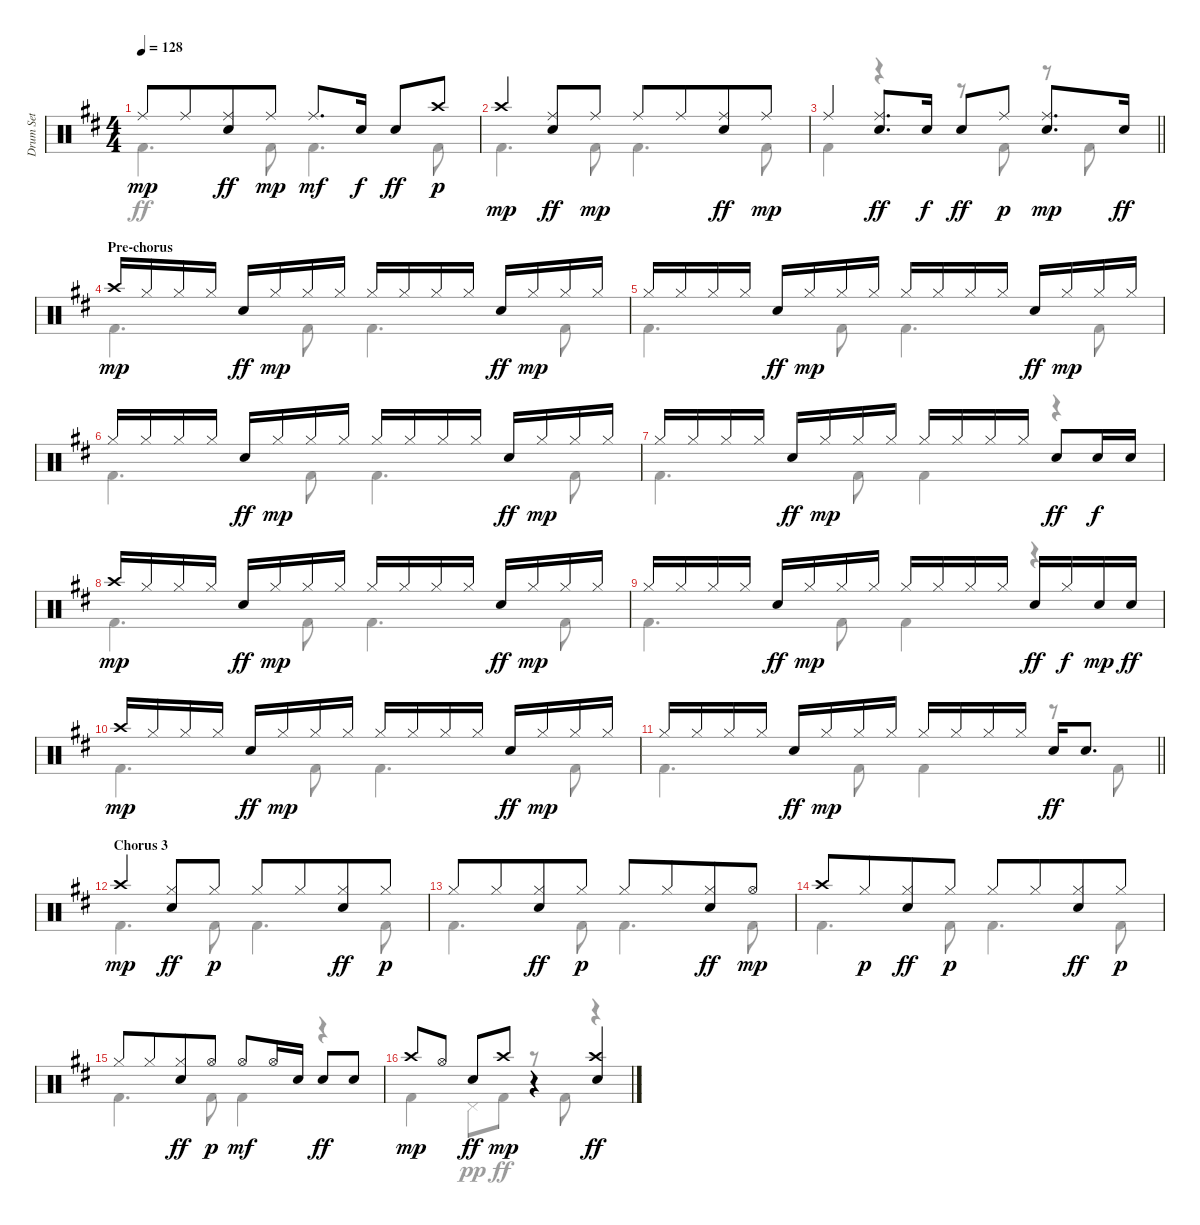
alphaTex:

\track ("Drum Set" "Drum Set") {instrument percussion}
\staff {score}
\articulation defaults
\voice
\ts (4 4)
\tempo 128
\clef neutral
\ks bminor "Ride (middle)".8{dy mp} "Ride (middle)".8{beam merge}
("Ride (middle)" "Electric Snare (hit)").8{dy ff} "Ride (middle)".8{dy mp} "Ride (middle)".8{d dy mf} "Electric Snare (hit)".16{dy f} "Electric Snare (hit)".8{dy ff} "Crash high (hit)".8{dy p} |
"Crash high (hit)".4{dy mp} ("Ride (middle)" "Electric Snare (hit)").8{dy ff} "Ride (middle)".8{dy mp} "Ride (middle)".8 "Ride (middle)".8{beam merge} ("Ride (middle)" "Electric Snare (hit)").8{dy ff} "Ride (middle)".8{dy mp} |
\barLineRight lightlight "Ride (middle)".4{beam merge}
("Ride (middle)" "Electric Snare (hit)").8{d dy ff} "Electric Snare (hit)".16{dy f} "Electric Snare (hit)".8{dy ff} "Ride (middle)".8{dy p} ("Electric Snare (hit)" "Ride (middle)").8{d dy mp} "Electric Snare (hit)".16{dy ff} |
\section ("" "Pre-chorus")
"Crash high (hit)".16{dy mp} "Hi-Hat (closed)".16 "Hi-Hat (closed)".16 "Hi-Hat (closed)".16 "Electric Snare (hit)".16{dy ff} "Hi-Hat (closed)".16{dy mp} "Hi-Hat (closed)".16 "Hi-Hat (closed)".16 "Hi-Hat (closed)".16 "Hi-Hat (closed)".16 "Hi-Hat (closed)".16 "Hi-Hat (closed)".16 "Electric Snare (hit)".16{dy ff} "Hi-Hat (closed)".16{dy mp} "Hi-Hat (closed)".16 "Hi-Hat (closed)".16 |
"Hi-Hat (closed)".16 "Hi-Hat (closed)".16 "Hi-Hat (closed)".16 "Hi-Hat (closed)".16 "Electric Snare (hit)".16{dy ff} "Hi-Hat (closed)".16{dy mp} "Hi-Hat (closed)".16 "Hi-Hat (closed)".16 "Hi-Hat (closed)".16 "Hi-Hat (closed)".16 "Hi-Hat (closed)".16 "Hi-Hat (closed)".16 "Electric Snare (hit)".16{dy ff} "Hi-Hat (closed)".16{dy mp} "Hi-Hat (closed)".16 "Hi-Hat (closed)".16 |
"Hi-Hat (closed)".16 "Hi-Hat (closed)".16 "Hi-Hat (closed)".16 "Hi-Hat (closed)".16 "Electric Snare (hit)".16{dy ff} "Hi-Hat (closed)".16{dy mp} "Hi-Hat (closed)".16 "Hi-Hat (closed)".16 "Hi-Hat (closed)".16 "Hi-Hat (closed)".16 "Hi-Hat (closed)".16 "Hi-Hat (closed)".16 "Electric Snare (hit)".16{dy ff} "Hi-Hat (closed)".16{dy mp} "Hi-Hat (closed)".16 "Hi-Hat (closed)".16 |
"Hi-Hat (closed)".16 "Hi-Hat (closed)".16 "Hi-Hat (closed)".16 "Hi-Hat (closed)".16 "Electric Snare (hit)".16{dy ff} "Hi-Hat (closed)".16{dy mp} "Hi-Hat (closed)".16 "Hi-Hat (closed)".16 "Hi-Hat (closed)".16 "Hi-Hat (closed)".16 "Hi-Hat (closed)".16 "Hi-Hat (closed)".16 "Electric Snare (hit)".8{dy ff} "Electric Snare (hit)".16{dy f} "Electric Snare (hit)".16 |
"Crash high (hit)".16{dy mp} "Hi-Hat (closed)".16 "Hi-Hat (closed)".16 "Hi-Hat (closed)".16 "Electric Snare (hit)".16{dy ff} "Hi-Hat (closed)".16{dy mp} "Hi-Hat (closed)".16 "Hi-Hat (closed)".16 "Hi-Hat (closed)".16 "Hi-Hat (closed)".16 "Hi-Hat (closed)".16 "Hi-Hat (closed)".16 "Electric Snare (hit)".16{dy ff} "Hi-Hat (closed)".16{dy mp} "Hi-Hat (closed)".16 "Hi-Hat (closed)".16 |
"Hi-Hat (closed)".16 "Hi-Hat (closed)".16 "Hi-Hat (closed)".16 "Hi-Hat (closed)".16 "Electric Snare (hit)".16{dy ff} "Hi-Hat (closed)".16{dy mp} "Hi-Hat (closed)".16 "Hi-Hat (closed)".16 "Hi-Hat (closed)".16 "Hi-Hat (closed)".16 "Hi-Hat (closed)".16 "Hi-Hat (closed)".16 "Electric Snare (hit)".16{dy ff} "Hi-Hat (closed)".16{dy f} "Electric Snare (hit)".16{dy mp} "Electric Snare (hit)".16{dy ff} |
"Crash high (hit)".16{dy mp} "Hi-Hat (closed)".16 "Hi-Hat (closed)".16 "Hi-Hat (closed)".16 "Electric Snare (hit)".16{dy ff} "Hi-Hat (closed)".16{dy mp} "Hi-Hat (closed)".16 "Hi-Hat (closed)".16 "Hi-Hat (closed)".16 "Hi-Hat (closed)".16 "Hi-Hat (closed)".16 "Hi-Hat (closed)".16 "Electric Snare (hit)".16{dy ff} "Hi-Hat (closed)".16{dy mp} "Hi-Hat (closed)".16 "Hi-Hat (closed)".16 |
\barLineRight lightlight "Hi-Hat (closed)".16 "Hi-Hat (closed)".16 "Hi-Hat (closed)".16 "Hi-Hat (closed)".16 "Electric Snare (hit)".16{dy ff} "Hi-Hat (closed)".16{dy mp} "Hi-Hat (closed)".16 "Hi-Hat (closed)".16 "Hi-Hat (closed)".16 "Hi-Hat (closed)".16 "Hi-Hat (closed)".16 "Hi-Hat (closed)".16 "Electric Snare (hit)".16{dy ff} "Electric Snare (hit)".8{d}
|
\section ("" "Chorus 3")
"Crash high (hit)".4{dy mp} ("Hi-Hat (closed)" "Electric Snare (hit)").8{dy ff} "Hi-Hat (closed)".8{dy p} "Hi-Hat (closed)".8 "Hi-Hat (closed)".8{beam merge} ("Hi-Hat (closed)" "Electric Snare (hit)").8{dy ff} "Hi-Hat (closed)".8{dy p} |
"Hi-Hat (closed)".8 "Hi-Hat (closed)".8{beam merge} ("Hi-Hat (closed)" "Electric Snare (hit)").8{dy ff} "Hi-Hat (closed)".8{dy p} "Hi-Hat (closed)".8 "Hi-Hat (closed)".8{beam merge} ("Hi-Hat (closed)" "Electric Snare (hit)").8{dy ff} "Hi-Hat (open)".8{dy mp} |
"Crash high (hit)".8 "Hi-Hat (closed)".8{dy p beam merge} ("Hi-Hat (closed)" "Electric Snare (hit)").8{dy ff} "Hi-Hat (closed)".8{dy p} "Hi-Hat (closed)".8 "Hi-Hat (closed)".8{beam merge} ("Hi-Hat (closed)" "Electric Snare (hit)").8{dy ff} "Hi-Hat (closed)".8{dy p} |
"Hi-Hat (closed)".8 "Hi-Hat (closed)".8{beam merge} ("Hi-Hat (closed)" "Electric Snare (hit)").8{dy ff} "Hi-Hat (open)".8{dy p} "Hi-Hat (open)".8{dy mf} "Hi-Hat (open)".16 "Electric Snare (hit)".16{beam split} "Electric Snare (hit)".8{dy ff} "Electric Snare (hit)".8 |
"Crash high (hit)".8{dy mp} "Hi-Hat (open)".8 "Electric Snare (hit)".8{dy ff} "Crash high (hit)".8{dy mp} r.4 ("Crash high (hit)" "Electric Snare (hit)").4{dy ff}
\voice
\clef neutral
\ottava regular
\simile none
\ks bminor "Kick (hit) 2".4{d dy ff} "Kick (hit) 2".8 "Kick (hit) 2".4{d} "Kick (hit) 2".8
|
"Kick (hit) 2".4{d} "Kick (hit) 2".8 "Kick (hit) 2".4{d} "Kick (hit) 2".8 |
\barLineRight lightlight "Kick (hit) 2".4
r.4 r.8 "Kick (hit) 2".8 r.8 "Kick (hit) 2".8 |
"Kick (hit) 2".4{d} "Kick (hit) 2".8 "Kick (hit) 2".4{d} "Kick (hit) 2".8 |
"Kick (hit) 2".4{d} "Kick (hit) 2".8 "Kick (hit) 2".4{d} "Kick (hit) 2".8 |
"Kick (hit) 2".4{d} "Kick (hit) 2".8 "Kick (hit) 2".4{d} "Kick (hit) 2".8 |
"Kick (hit) 2".4{d} "Kick (hit) 2".8 "Kick (hit) 2".4 r.4 |
"Kick (hit) 2".4{d} "Kick (hit) 2".8 "Kick (hit) 2".4{d} "Kick (hit) 2".8 |
"Kick (hit) 2".4{d} "Kick (hit) 2".8 "Kick (hit) 2".4 r.4 |
"Kick (hit) 2".4{d} "Kick (hit) 2".8 "Kick (hit) 2".4{d} "Kick (hit) 2".8 |
\barLineRight lightlight "Kick (hit) 2".4{d} "Kick (hit) 2".8 "Kick (hit) 2".4
r.8 "Kick (hit) 2".8 |
"Kick (hit) 2".4{d} "Kick (hit) 2".8 "Kick (hit) 2".4{d} "Kick (hit) 2".8 |
"Kick (hit) 2".4{d} "Kick (hit) 2".8 "Kick (hit) 2".4{d} "Kick (hit) 2".8 |
"Kick (hit) 2".4{d} "Kick (hit) 2".8 "Kick (hit) 2".4{d} "Kick (hit) 2".8 |
"Kick (hit) 2".4{d} "Kick (hit) 2".8 "Kick (hit) 2".4 r.4 |
"Kick (hit) 2".4 "Pedal Hi-Hat (hit)".8{dy pp} "Kick (hit) 2".8{dy ff} r.8 "Kick (hit) 2".8 r.4
